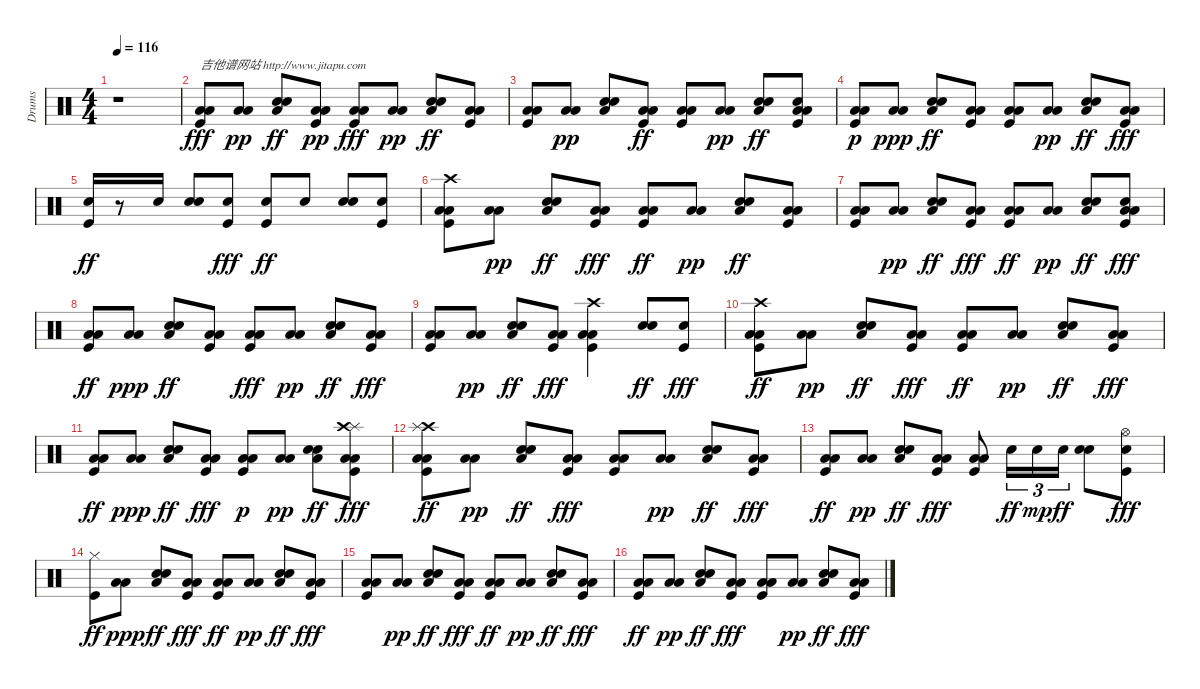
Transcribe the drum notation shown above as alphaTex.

\track ("Drums" "Drums") {instrument percussion}
\staff {score}
\articulation defaults
\ts (4 4)
\tempo 116
\clef neutral
\ks c
r.1{dy fff} |
("Kick (hit)" "Low Floor Tom (hit)" "Low Tom (hit)").8{txt "吉他谱网站 http://www.jitapu.com"} ("Low Floor Tom (hit)" "Low Tom (hit)").8{dy pp} ("Snare (hit) 2" "Hand Clap (hit)" "Low Floor Tom (hit)").8{dy ff} ("Kick (hit)" "Low Floor Tom (hit)" "Low Tom (hit)").8{dy pp} ("Low Tom (hit)" "Low Floor Tom (hit)" "Kick (hit)").8{dy fff} ("Low Floor Tom (hit)" "Low Tom (hit)").8{dy pp} ("Low Floor Tom (hit)" "Hand Clap (hit)" "Snare (hit) 2").8{dy ff} ("Low Tom (hit)" "Low Floor Tom (hit)" "Kick (hit)").8 |
("Low Tom (hit)" "Low Floor Tom (hit)" "Kick (hit)").8 ("Low Tom (hit)" "Low Floor Tom (hit)").8{dy pp} ("Hand Clap (hit)" "Snare (hit) 2" "Low Floor Tom (hit)").8 ("Low Tom (hit)" "Low Floor Tom (hit)" "Kick (hit)").8{dy ff} ("Low Tom (hit)" "Low Floor Tom (hit)" "Kick (hit)").8 ("Low Floor Tom (hit)" "Low Tom (hit)").8{dy pp} ("Snare (hit) 2" "Low Floor Tom (hit)" "Hand Clap (hit)").8{dy ff} ("Snare (hit) 2" "Low Tom (hit)" "Low Floor Tom (hit)" "Kick (hit)").8 |
("Low Tom (hit)" "Low Floor Tom (hit)" "Kick (hit)").8{dy p} ("Low Floor Tom (hit)" "Low Tom (hit)").8{dy ppp} ("Hand Clap (hit)" "Low Floor Tom (hit)" "Snare (hit) 2").8{dy ff} ("Low Tom (hit)" "Low Floor Tom (hit)" "Kick (hit)").8 ("Low Tom (hit)" "Low Floor Tom (hit)" "Kick (hit)").8 ("Low Tom (hit)" "Low Floor Tom (hit)").8{dy pp} ("Snare (hit) 2" "Low Floor Tom (hit)" "Hand Clap (hit)").8{dy ff} ("Low Tom (hit)" "Low Floor Tom (hit)" "Kick (hit)").8{dy fff} |
("Snare (hit) 2" "Kick (hit)").16{dy ff} r.8 "Snare (hit) 2".16 ("Hand Clap (hit)" "Snare (hit) 2").8 ("Snare (hit) 2" "Kick (hit)").8{dy fff} ("Snare (hit) 2" "Kick (hit)").8{dy ff} "Snare (hit) 2".8 ("Hand Clap (hit)" "Snare (hit) 2").8 ("Kick (hit)" "Snare (hit) 2").8 |
("Crash high (hit)" "Low Tom (hit)" "Low Floor Tom (hit)" "Kick (hit)").8 ("Low Tom (hit)" "Low Floor Tom (hit)").8{dy pp} ("Snare (hit) 2" "Low Floor Tom (hit)" "Hand Clap (hit)").8{dy ff} ("Low Tom (hit)" "Low Floor Tom (hit)" "Kick (hit)").8{dy fff} ("Low Tom (hit)" "Low Floor Tom (hit)" "Kick (hit)").8{dy ff} ("Low Tom (hit)" "Low Floor Tom (hit)").8{dy pp} ("Low Floor Tom (hit)" "Hand Clap (hit)" "Snare (hit) 2").8{dy ff} ("Low Tom (hit)" "Low Floor Tom (hit)" "Kick (hit)").8 |
("Low Tom (hit)" "Low Floor Tom (hit)" "Kick (hit)").8 ("Low Tom (hit)" "Low Floor Tom (hit)").8{dy pp} ("Snare (hit) 2" "Low Floor Tom (hit)" "Hand Clap (hit)").8{dy ff} ("Low Tom (hit)" "Low Floor Tom (hit)" "Kick (hit)").8{dy fff} ("Low Tom (hit)" "Low Floor Tom (hit)" "Kick (hit)").8{dy ff} ("Low Floor Tom (hit)" "Low Tom (hit)").8{dy pp} ("Snare (hit) 2" "Low Floor Tom (hit)" "Hand Clap (hit)").8{dy ff} ("Snare (hit) 2" "Low Tom (hit)" "Low Floor Tom (hit)" "Kick (hit)").8{dy fff} |
("Low Tom (hit)" "Low Floor Tom (hit)" "Kick (hit)").8{dy ff} ("Low Floor Tom (hit)" "Low Tom (hit)").8{dy ppp} ("Low Floor Tom (hit)" "Hand Clap (hit)" "Snare (hit) 2").8{dy ff} ("Low Tom (hit)" "Low Floor Tom (hit)" "Kick (hit)").8 ("Low Tom (hit)" "Low Floor Tom (hit)" "Kick (hit)").8{dy fff} ("Low Tom (hit)" "Low Floor Tom (hit)").8{dy pp} ("Snare (hit) 2" "Low Floor Tom (hit)" "Hand Clap (hit)").8{dy ff} ("Low Tom (hit)" "Low Floor Tom (hit)" "Kick (hit)").8{dy fff} |
("Low Tom (hit)" "Low Floor Tom (hit)" "Kick (hit)").8 ("Low Tom (hit)" "Low Floor Tom (hit)").8{dy pp} ("Snare (hit) 2" "Low Floor Tom (hit)" "Hand Clap (hit)").8{dy ff} ("Low Tom (hit)" "Low Floor Tom (hit)" "Kick (hit)").8{dy fff} ("Low Tom (hit)" "Low Floor Tom (hit)" "Kick (hit)" "Crash high (hit)").4 ("Snare (hit) 2" "Hand Clap (hit)").8{dy ff} ("Snare (hit) 2" "Kick (hit)").8{dy fff} |
("Crash high (hit)" "Low Tom (hit)" "Low Floor Tom (hit)" "Kick (hit)").8{dy ff} ("Low Tom (hit)" "Low Floor Tom (hit)").8{dy pp} ("Snare (hit) 2" "Low Floor Tom (hit)" "Hand Clap (hit)").8{dy ff} ("Low Tom (hit)" "Low Floor Tom (hit)" "Kick (hit)").8{dy fff} ("Low Tom (hit)" "Low Floor Tom (hit)" "Kick (hit)").8{dy ff} ("Low Floor Tom (hit)" "Low Tom (hit)").8{dy pp} ("Snare (hit) 2" "Low Floor Tom (hit)" "Hand Clap (hit)").8{dy ff} ("Low Tom (hit)" "Low Floor Tom (hit)" "Kick (hit)").8{dy fff} |
("Low Tom (hit)" "Low Floor Tom (hit)" "Kick (hit)").8{dy ff} ("Low Floor Tom (hit)" "Low Tom (hit)").8{dy ppp} ("Low Floor Tom (hit)" "Hand Clap (hit)" "Snare (hit) 2").8{dy ff} ("Low Tom (hit)" "Low Floor Tom (hit)" "Kick (hit)").8{dy fff} ("Kick (hit)" "Low Tom (hit)" "Low Floor Tom (hit)").8{dy p} ("Low Tom (hit)" "Low Floor Tom (hit)").8{dy pp} ("Snare (hit) 2" "Low Floor Tom (hit)" "Hand Clap (hit)").8{dy ff} ("Splash (hit)" "Crash high (hit)" "Low Tom (hit)" "Low Floor Tom (hit)" "Kick (hit)").8{dy fff} |
("Crash high (hit)" "Splash (hit)" "Low Tom (hit)" "Low Floor Tom (hit)" "Kick (hit)").8{dy ff} ("Low Tom (hit)" "Low Floor Tom (hit)").8{dy pp} ("Snare (hit) 2" "Low Floor Tom (hit)" "Hand Clap (hit)").8{dy ff} ("Low Tom (hit)" "Low Floor Tom (hit)" "Kick (hit)").8{dy fff} ("Low Tom (hit)" "Low Floor Tom (hit)" "Kick (hit)").8 ("Low Tom (hit)" "Low Floor Tom (hit)").8{dy pp} ("Low Floor Tom (hit)" "Hand Clap (hit)" "Snare (hit) 2").8{dy ff} ("Low Tom (hit)" "Low Floor Tom (hit)" "Kick (hit)").8{dy fff} |
("Low Tom (hit)" "Low Floor Tom (hit)" "Kick (hit)").8{dy ff} ("Low Tom (hit)" "Low Floor Tom (hit)").8{dy pp} ("Snare (hit) 2" "Low Floor Tom (hit)" "Hand Clap (hit)").8{dy ff} ("Low Tom (hit)" "Low Floor Tom (hit)" "Kick (hit)").8{dy fff} ("Low Tom (hit)" "Low Floor Tom (hit)" "Kick (hit)").8 "Snare (hit) 2".16{tu (3 2) dy ff} "Snare (hit) 2".16{tu (3 2) dy mp} "Snare (hit) 2".16{tu (3 2) dy ff} ("Snare (hit) 2" "Hand Clap (hit)").8 ("Snare (hit) 2" "Kick (hit)" "Hi-Hat (open)").8{dy fff} |
("Hi-Hat (closed)" "Kick (hit)").8{dy ff} ("Low Floor Tom (hit)" "Low Tom (hit)").8{dy ppp} ("Hand Clap (hit)" "Low Floor Tom (hit)" "Snare (hit) 2").8{dy ff} ("Low Tom (hit)" "Low Floor Tom (hit)" "Kick (hit)").8{dy fff} ("Low Tom (hit)" "Low Floor Tom (hit)" "Kick (hit)").8{dy ff} ("Low Tom (hit)" "Low Floor Tom (hit)").8{dy pp} ("Snare (hit) 2" "Low Floor Tom (hit)" "Hand Clap (hit)").8{dy ff} ("Low Tom (hit)" "Low Floor Tom (hit)" "Kick (hit)").8{dy fff} |
("Low Tom (hit)" "Low Floor Tom (hit)" "Kick (hit)").8 ("Low Tom (hit)" "Low Floor Tom (hit)").8{dy pp} ("Low Floor Tom (hit)" "Hand Clap (hit)" "Snare (hit) 2").8{dy ff} ("Low Tom (hit)" "Low Floor Tom (hit)" "Kick (hit)").8{dy fff} ("Low Tom (hit)" "Low Floor Tom (hit)" "Kick (hit)").8{dy ff} ("Low Tom (hit)" "Low Floor Tom (hit)").8{dy pp} ("Low Floor Tom (hit)" "Hand Clap (hit)" "Snare (hit) 2").8{dy ff} ("Low Tom (hit)" "Low Floor Tom (hit)" "Kick (hit)").8{dy fff} |
("Low Tom (hit)" "Low Floor Tom (hit)" "Kick (hit)").8{dy ff} ("Low Tom (hit)" "Low Floor Tom (hit)").8{dy pp} ("Snare (hit) 2" "Low Floor Tom (hit)" "Hand Clap (hit)").8{dy ff} ("Low Tom (hit)" "Low Floor Tom (hit)" "Kick (hit)").8{dy fff} ("Low Tom (hit)" "Low Floor Tom (hit)" "Kick (hit)").8 ("Low Floor Tom (hit)" "Low Tom (hit)").8{dy pp} ("Snare (hit) 2" "Low Floor Tom (hit)" "Hand Clap (hit)").8{dy ff} ("Low Tom (hit)" "Low Floor Tom (hit)" "Kick (hit)").8{dy fff}
